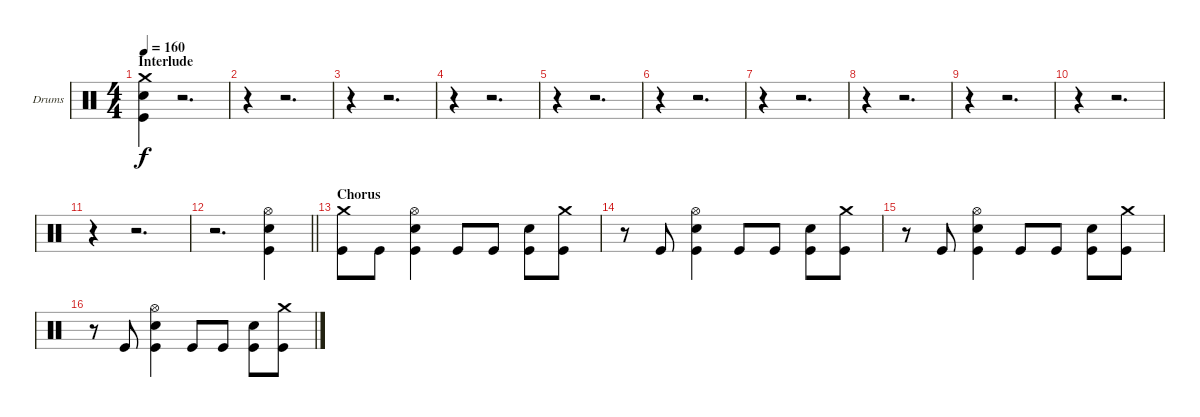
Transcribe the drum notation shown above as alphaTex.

\bracketExtendMode groupsimilarinstruments
\firstSystemTrackNameOrientation horizontal
\otherSystemsTrackNameOrientation horizontal
\track ("Drum" "Drums") {instrument percussion}
\staff {score}
\articulation defaults
\ts (4 4)
\section ("" "Interlude")
\tempo 160
\clef neutral
\ks c
("Crash medium (hit)" "Snare (hit) 2" "Kick (hit)").4{dy f} r.2{d} |
r.4 r.2{d} |
r.4 r.2{d} |
r.4 r.2{d} |
r.4 r.2{d} |
r.4 r.2{d} |
r.4 r.2{d} |
r.4 r.2{d} |
r.4 r.2{d} |
r.4 r.2{d} |
r.4 r.2{d} |
\barLineRight lightlight
r.2{d} ("Hi-Hat (open)" "Snare (hit) 2" "Kick (hit)").4 |
\section ("" "Chorus")
("Crash medium (hit)" "Kick (hit)").8 "Kick (hit)".8 ("Hi-Hat (open)" "Snare (hit) 2" "Kick (hit)").4 "Kick (hit)".8 "Kick (hit)".8 ("Snare (hit) 2" "Kick (hit)").8 ("Crash medium (hit)" "Kick (hit)").8 |
r.8 "Kick (hit)".8 ("Hi-Hat (open)" "Snare (hit) 2" "Kick (hit)").4 "Kick (hit)".8 "Kick (hit)".8 ("Snare (hit) 2" "Kick (hit)").8 ("Crash medium (hit)" "Kick (hit)").8 |
r.8 "Kick (hit)".8 ("Hi-Hat (open)" "Snare (hit) 2" "Kick (hit)").4 "Kick (hit)".8 "Kick (hit)".8 ("Snare (hit) 2" "Kick (hit)").8 ("Crash medium (hit)" "Kick (hit)").8 |
r.8 "Kick (hit)".8 ("Hi-Hat (open)" "Snare (hit) 2" "Kick (hit)").4 "Kick (hit)".8 "Kick (hit)".8 ("Snare (hit) 2" "Kick (hit)").8 ("Crash medium (hit)" "Kick (hit)").8
